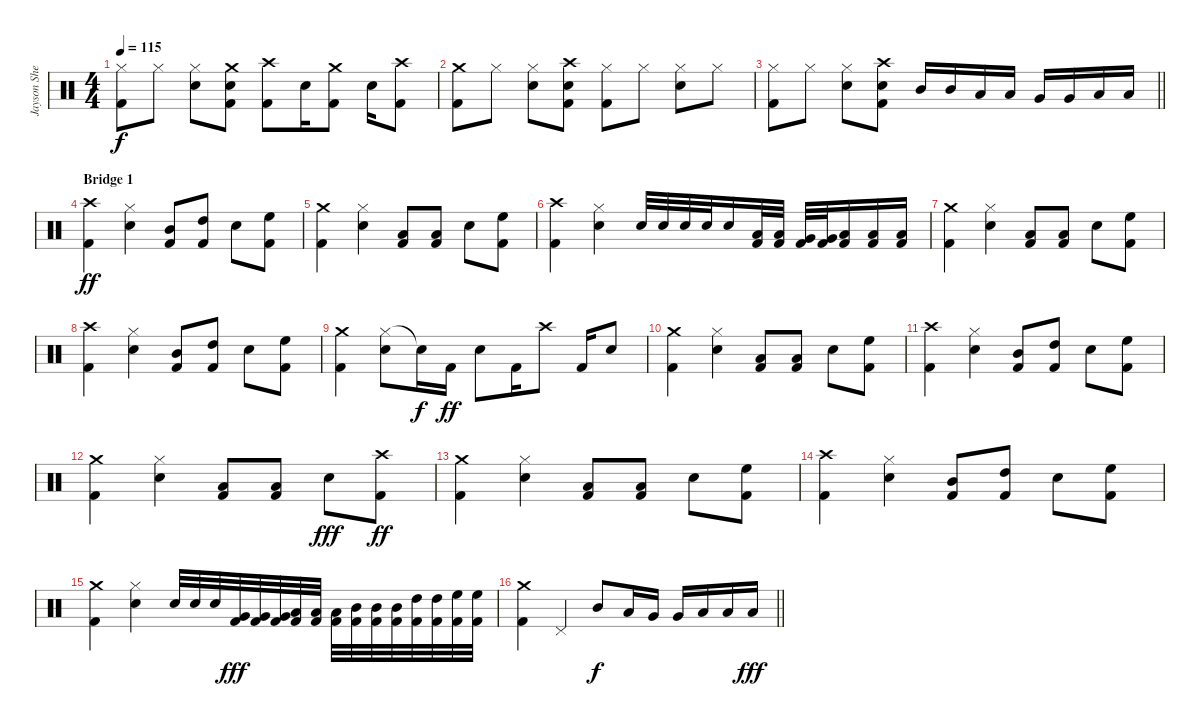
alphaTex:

\track ("Jayson Sherlock" "Jayson She") {instrument percussion}
\staff {score}
\articulation defaults
\ts (4 4)
\tempo 115
\clef neutral
\ks c
("Kick (hit) 2" "Hi-Hat (closed)").8{dy f} "Hi-Hat (closed)".8 ("Hi-Hat (closed)" "Snare (hit) 2").8 ("Kick (hit) 2" "Snare (hit) 2" "Crash medium (hit)").8 ("Kick (hit) 2" "Crash high (hit)").8 "Snare (hit) 2".16 ("Kick (hit) 2" "Crash medium (hit)").8 "Snare (hit) 2".16 ("Kick (hit) 2" "Crash high (hit)").8 |
("Kick (hit) 2" "Crash medium (hit)").8 "Hi-Hat (closed)".8 ("Hi-Hat (closed)" "Snare (hit) 2").8 ("Kick (hit) 2" "Snare (hit) 2" "Crash high (hit)").8 ("Kick (hit) 2" "Hi-Hat (closed)").8 "Hi-Hat (closed)".8 ("Hi-Hat (closed)" "Snare (hit) 2").8 "Hi-Hat (closed)".8 |
\barLineRight lightlight
("Kick (hit) 2" "Hi-Hat (closed)").8 "Hi-Hat (closed)".8 ("Hi-Hat (closed)" "Snare (hit) 2").8 ("Kick (hit) 2" "Snare (hit) 2" "Crash high (hit)").8 "Mid Tom (hit)".16 "Mid Tom (hit)".16 "Low Tom (hit)".16 "Low Tom (hit)".16 "Very Low Tom (hit)".16 "Very Low Tom (hit)".16 "Low Floor Tom (hit)".16 "Low Floor Tom (hit)".16 |
\section ("" "Bridge 1")
("Kick (hit) 2" "Crash high (hit)").4{dy ff} ("Hi-Hat (closed)" "Snare (hit) 2").4 ("Kick (hit) 2" "Mid Tom (hit)").8 ("Kick (hit) 2" "High Tom (hit)").8 "Snare (hit) 2".8 ("Kick (hit) 2" "High Floor Tom (hit)").8 |
("Kick (hit) 2" "Crash medium (hit)").4 ("Hi-Hat (closed)" "Snare (hit) 2").4 ("Kick (hit) 2" "Low Tom (hit)").8 ("Kick (hit) 2" "Low Tom (hit)").8 "Snare (hit) 2".8 ("Kick (hit) 2" "High Floor Tom (hit)").8 |
("Kick (hit) 2" "Crash high (hit)").4 ("Hi-Hat (closed)" "Snare (hit) 2").4 "Snare (hit) 2".32 "Snare (hit) 2".32 "Snare (hit) 2".32 "Snare (hit) 2".32 "Snare (hit) 2".16 ("Kick (hit) 2" "Low Tom (hit)").32 ("Kick (hit) 2" "Low Tom (hit)").32 ("Kick (hit) 2" "Very Low Tom (hit)").32 ("Kick (hit) 2" "Very Low Tom (hit)").32 ("Kick (hit) 2" "Low Floor Tom (hit)").16 ("Kick (hit) 2" "Low Floor Tom (hit)").16 ("Kick (hit) 2" "Low Floor Tom (hit)").16 |
("Kick (hit) 2" "Crash medium (hit)").4 ("Hi-Hat (closed)" "Snare (hit) 2").4 ("Kick (hit) 2" "Low Tom (hit)").8 ("Kick (hit) 2" "Low Tom (hit)").8 "Snare (hit) 2".8 ("Kick (hit) 2" "High Floor Tom (hit)").8 |
("Kick (hit) 2" "Crash high (hit)").4 ("Hi-Hat (closed)" "Snare (hit) 2").4 ("Kick (hit) 2" "Mid Tom (hit)").8 ("Kick (hit) 2" "High Tom (hit)").8 "Snare (hit) 2".8 ("Kick (hit) 2" "High Floor Tom (hit)").8 |
("Kick (hit) 2" "Crash medium (hit)").4 ("Hi-Hat (closed)" "Snare (hit) 2").8 "Snare (hit)"{t}.16{dy f} "Kick (hit) 2".16{dy ff} "Snare (hit) 2".8 "Kick (hit) 2".16 "Crash high (hit)".8 "Kick (hit) 2".16 "Snare (hit) 2".8 |
("Kick (hit) 2" "Crash medium (hit)").4 ("Hi-Hat (closed)" "Snare (hit) 2").4 ("Kick (hit) 2" "Low Tom (hit)").8 ("Kick (hit) 2" "Low Tom (hit)").8 "Snare (hit) 2".8 ("Kick (hit) 2" "High Floor Tom (hit)").8 |
("Kick (hit) 2" "Crash high (hit)").4 ("Hi-Hat (closed)" "Snare (hit) 2").4 ("Kick (hit) 2" "Mid Tom (hit)").8 ("Kick (hit) 2" "High Tom (hit)").8 "Snare (hit) 2".8 ("Kick (hit) 2" "High Floor Tom (hit)").8 |
("Kick (hit) 2" "Crash medium (hit)").4 ("Hi-Hat (closed)" "Snare (hit) 2").4 ("Kick (hit) 2" "Low Tom (hit)").8 ("Kick (hit) 2" "Low Tom (hit)").8 "Snare (hit) 2".8{dy fff} ("Kick (hit) 2" "Crash high (hit)").8{dy ff} |
("Kick (hit) 2" "Crash medium (hit)").4 ("Hi-Hat (closed)" "Snare (hit) 2").4 ("Kick (hit) 2" "Low Tom (hit)").8 ("Kick (hit) 2" "Low Tom (hit)").8 "Snare (hit) 2".8 ("Kick (hit) 2" "High Floor Tom (hit)").8 |
("Kick (hit) 2" "Crash high (hit)").4 ("Hi-Hat (closed)" "Snare (hit) 2").4 ("Kick (hit) 2" "Mid Tom (hit)").8 ("Kick (hit) 2" "High Tom (hit)").8 "Snare (hit) 2".8 ("Kick (hit) 2" "High Floor Tom (hit)").8 |
("Kick (hit) 2" "Crash medium (hit)").4 ("Hi-Hat (closed)" "Snare (hit) 2").4 "Snare (hit) 2".32 "Snare (hit) 2".32 "Snare (hit) 2".32 ("Kick (hit) 2" "Very Low Tom (hit)").32{dy fff} ("Kick (hit) 2" "Very Low Tom (hit)").32 ("Kick (hit) 2" "Very Low Tom (hit)").32 ("Kick (hit) 2" "Low Tom (hit)").32 ("Kick (hit) 2" "Low Tom (hit)").32 ("Kick (hit) 2" "Low Tom (hit)").32 ("Kick (hit) 2" "Mid Tom (hit)").32 ("Kick (hit) 2" "Mid Tom (hit)").32 ("Kick (hit) 2" "Mid Tom (hit)").32 ("Kick (hit) 2" "High Tom (hit)").32 ("Kick (hit) 2" "High Tom (hit)").32 ("Kick (hit) 2" "High Floor Tom (hit)").32 ("Kick (hit) 2" "High Floor Tom (hit)").32 |
\barLineRight lightlight
("Kick (hit) 2" "Crash medium (hit)").4 "Pedal Hi-Hat (hit)".4 "Mid Tom (hit)".8{dy f} "Low Tom (hit)".16 "Very Low Tom (hit)".16 "Very Low Tom (hit)".16 "Low Floor Tom (hit)".16 "Low Floor Tom (hit)".16 "Low Floor Tom (hit)".16{dy fff}
